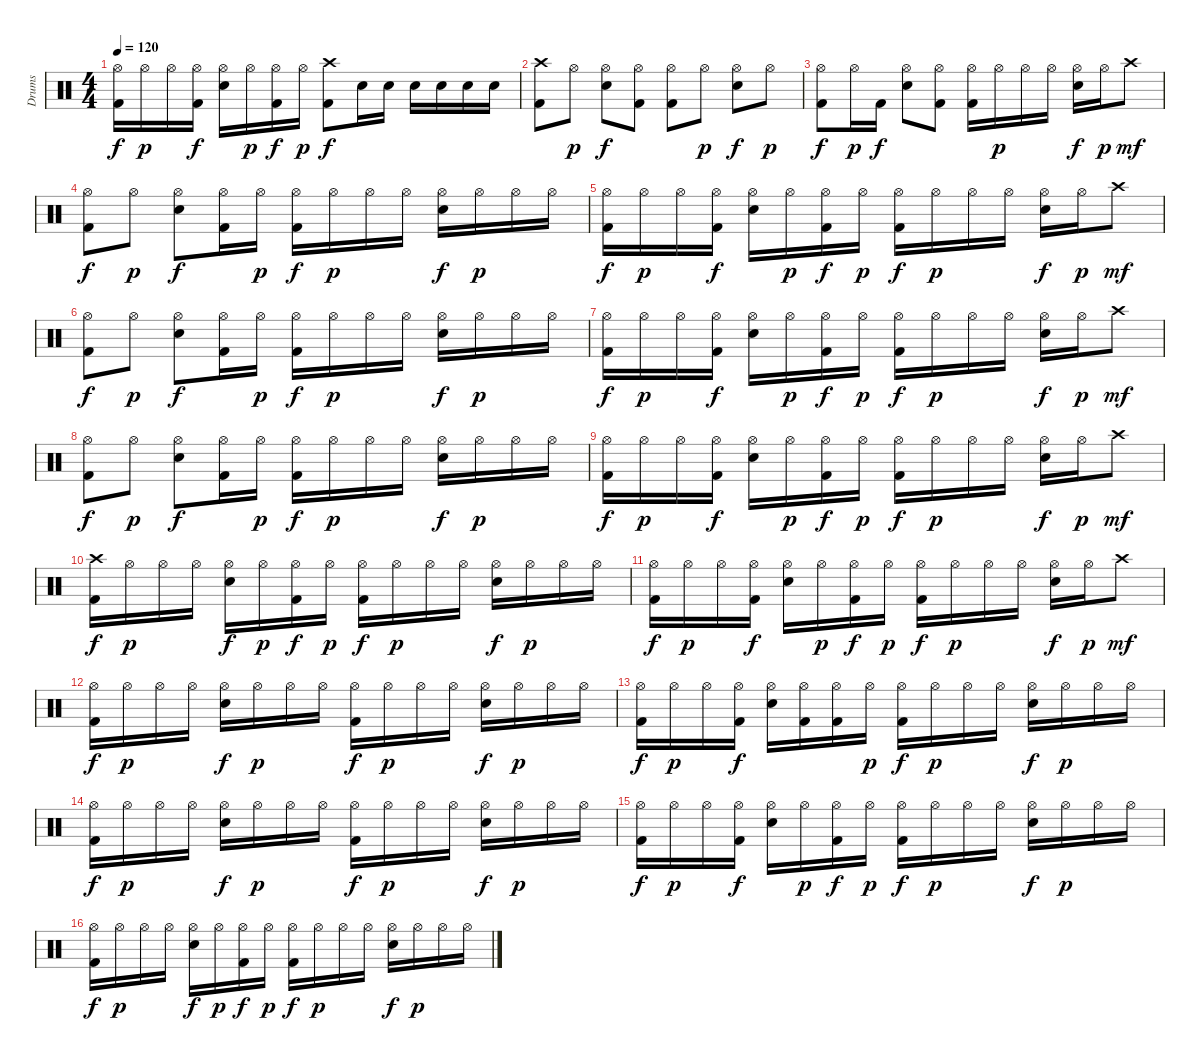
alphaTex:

\track ("Drums" "Drums") {instrument percussion}
\staff {score}
\articulation defaults
\ts (4 4)
\tempo 120
\clef neutral
\ks c
("Hi-Hat (open)" "Kick (hit) 2").16{dy f} "Hi-Hat (open)".16{dy p} "Hi-Hat (open)".16 ("Hi-Hat (open)" "Kick (hit) 2").16{dy f} ("Hi-Hat (open)" "Electric Snare (hit)").16 "Hi-Hat (open)".16{dy p} ("Hi-Hat (open)" "Kick (hit) 2").16{dy f} "Hi-Hat (open)".16{dy p} ("Crash high (hit)" "Kick (hit) 2").8{dy f} "Electric Snare (hit)".16 "Electric Snare (hit)".16 "Electric Snare (hit)".16 "Electric Snare (hit)".16 "Electric Snare (hit)".16 "Electric Snare (hit)".16 |
("Crash high (hit)" "Kick (hit) 2").8 "Hi-Hat (open)".8{dy p} ("Hi-Hat (open)" "Electric Snare (hit)").8{dy f} ("Hi-Hat (open)" "Kick (hit) 2").8 ("Hi-Hat (open)" "Kick (hit) 2").8 "Hi-Hat (open)".8{dy p} ("Hi-Hat (open)" "Electric Snare (hit)").8{dy f} "Hi-Hat (open)".8{dy p} |
("Hi-Hat (open)" "Kick (hit) 2").8{dy f} "Hi-Hat (open)".16{dy p} "Kick (hit) 2".16{dy f} ("Hi-Hat (open)" "Electric Snare (hit)").8 ("Hi-Hat (open)" "Kick (hit) 2").8 ("Hi-Hat (open)" "Kick (hit) 2").16 "Hi-Hat (open)".16{dy p} "Hi-Hat (open)".16 "Hi-Hat (open)".16 ("Hi-Hat (open)" "Electric Snare (hit)").16{dy f} "Hi-Hat (open)".16{dy p} "Crash high (hit)".8{dy mf} |
("Hi-Hat (open)" "Kick (hit) 2").8{dy f} "Hi-Hat (open)".8{dy p} ("Hi-Hat (open)" "Electric Snare (hit)").8{dy f} ("Hi-Hat (open)" "Kick (hit) 2").16 "Hi-Hat (open)".16{dy p} ("Hi-Hat (open)" "Kick (hit) 2").16{dy f} "Hi-Hat (open)".16{dy p} "Hi-Hat (open)".16 "Hi-Hat (open)".16 ("Hi-Hat (open)" "Electric Snare (hit)").16{dy f} "Hi-Hat (open)".16{dy p} "Hi-Hat (open)".16 "Hi-Hat (open)".16 |
("Hi-Hat (open)" "Kick (hit) 2").16{dy f} "Hi-Hat (open)".16{dy p} "Hi-Hat (open)".16 ("Hi-Hat (open)" "Kick (hit) 2").16{dy f} ("Hi-Hat (open)" "Electric Snare (hit)").16 "Hi-Hat (open)".16{dy p} ("Hi-Hat (open)" "Kick (hit) 2").16{dy f} "Hi-Hat (open)".16{dy p} ("Hi-Hat (open)" "Kick (hit) 2").16{dy f} "Hi-Hat (open)".16{dy p} "Hi-Hat (open)".16 "Hi-Hat (open)".16 ("Hi-Hat (open)" "Electric Snare (hit)").16{dy f} "Hi-Hat (open)".16{dy p} "Crash high (hit)".8{dy mf} |
("Hi-Hat (open)" "Kick (hit) 2").8{dy f} "Hi-Hat (open)".8{dy p} ("Hi-Hat (open)" "Electric Snare (hit)").8{dy f} ("Hi-Hat (open)" "Kick (hit) 2").16 "Hi-Hat (open)".16{dy p} ("Hi-Hat (open)" "Kick (hit) 2").16{dy f} "Hi-Hat (open)".16{dy p} "Hi-Hat (open)".16 "Hi-Hat (open)".16 ("Hi-Hat (open)" "Electric Snare (hit)").16{dy f} "Hi-Hat (open)".16{dy p} "Hi-Hat (open)".16 "Hi-Hat (open)".16 |
("Hi-Hat (open)" "Kick (hit) 2").16{dy f} "Hi-Hat (open)".16{dy p} "Hi-Hat (open)".16 ("Hi-Hat (open)" "Kick (hit) 2").16{dy f} ("Hi-Hat (open)" "Electric Snare (hit)").16 "Hi-Hat (open)".16{dy p} ("Hi-Hat (open)" "Kick (hit) 2").16{dy f} "Hi-Hat (open)".16{dy p} ("Hi-Hat (open)" "Kick (hit) 2").16{dy f} "Hi-Hat (open)".16{dy p} "Hi-Hat (open)".16 "Hi-Hat (open)".16 ("Hi-Hat (open)" "Electric Snare (hit)").16{dy f} "Hi-Hat (open)".16{dy p} "Crash high (hit)".8{dy mf} |
("Hi-Hat (open)" "Kick (hit) 2").8{dy f} "Hi-Hat (open)".8{dy p} ("Hi-Hat (open)" "Electric Snare (hit)").8{dy f} ("Hi-Hat (open)" "Kick (hit) 2").16 "Hi-Hat (open)".16{dy p} ("Hi-Hat (open)" "Kick (hit) 2").16{dy f} "Hi-Hat (open)".16{dy p} "Hi-Hat (open)".16 "Hi-Hat (open)".16 ("Hi-Hat (open)" "Electric Snare (hit)").16{dy f} "Hi-Hat (open)".16{dy p} "Hi-Hat (open)".16 "Hi-Hat (open)".16 |
("Hi-Hat (open)" "Kick (hit) 2").16{dy f} "Hi-Hat (open)".16{dy p} "Hi-Hat (open)".16 ("Hi-Hat (open)" "Kick (hit) 2").16{dy f} ("Hi-Hat (open)" "Electric Snare (hit)").16 "Hi-Hat (open)".16{dy p} ("Hi-Hat (open)" "Kick (hit) 2").16{dy f} "Hi-Hat (open)".16{dy p} ("Hi-Hat (open)" "Kick (hit) 2").16{dy f} "Hi-Hat (open)".16{dy p} "Hi-Hat (open)".16 "Hi-Hat (open)".16 ("Hi-Hat (open)" "Electric Snare (hit)").16{dy f} "Hi-Hat (open)".16{dy p} "Crash high (hit)".8{dy mf} |
("Crash high (hit)" "Kick (hit) 2").16{dy f} "Hi-Hat (open)".16{dy p} "Hi-Hat (open)".16 "Hi-Hat (open)".16 ("Hi-Hat (open)" "Electric Snare (hit)").16{dy f} "Hi-Hat (open)".16{dy p} ("Hi-Hat (open)" "Kick (hit) 2").16{dy f} "Hi-Hat (open)".16{dy p} ("Hi-Hat (open)" "Kick (hit) 2").16{dy f} "Hi-Hat (open)".16{dy p} "Hi-Hat (open)".16 "Hi-Hat (open)".16 ("Hi-Hat (open)" "Electric Snare (hit)").16{dy f} "Hi-Hat (open)".16{dy p} "Hi-Hat (open)".16 "Hi-Hat (open)".16 |
("Hi-Hat (open)" "Kick (hit) 2").16{dy f} "Hi-Hat (open)".16{dy p} "Hi-Hat (open)".16 ("Hi-Hat (open)" "Kick (hit) 2").16{dy f} ("Hi-Hat (open)" "Electric Snare (hit)").16 "Hi-Hat (open)".16{dy p} ("Hi-Hat (open)" "Kick (hit) 2").16{dy f} "Hi-Hat (open)".16{dy p} ("Hi-Hat (open)" "Kick (hit) 2").16{dy f} "Hi-Hat (open)".16{dy p} "Hi-Hat (open)".16 "Hi-Hat (open)".16 ("Hi-Hat (open)" "Electric Snare (hit)").16{dy f} "Hi-Hat (open)".16{dy p} "Crash high (hit)".8{dy mf} |
("Hi-Hat (open)" "Kick (hit) 2").16{dy f} "Hi-Hat (open)".16{dy p} "Hi-Hat (open)".16 "Hi-Hat (open)".16 ("Hi-Hat (open)" "Electric Snare (hit)").16{dy f} "Hi-Hat (open)".16{dy p} "Hi-Hat (open)".16 "Hi-Hat (open)".16 ("Hi-Hat (open)" "Kick (hit) 2").16{dy f} "Hi-Hat (open)".16{dy p} "Hi-Hat (open)".16 "Hi-Hat (open)".16 ("Hi-Hat (open)" "Electric Snare (hit)").16{dy f} "Hi-Hat (open)".16{dy p} "Hi-Hat (open)".16 "Hi-Hat (open)".16 |
("Hi-Hat (open)" "Kick (hit) 2").16{dy f} "Hi-Hat (open)".16{dy p} "Hi-Hat (open)".16 ("Hi-Hat (open)" "Kick (hit) 2").16{dy f} ("Hi-Hat (open)" "Electric Snare (hit)").16 ("Hi-Hat (open)" "Kick (hit) 2").16 ("Hi-Hat (open)" "Kick (hit) 2").16 "Hi-Hat (open)".16{dy p} ("Hi-Hat (open)" "Kick (hit) 2").16{dy f} "Hi-Hat (open)".16{dy p} "Hi-Hat (open)".16 "Hi-Hat (open)".16 ("Hi-Hat (open)" "Electric Snare (hit)").16{dy f} "Hi-Hat (open)".16{dy p} "Hi-Hat (open)".16 "Hi-Hat (open)".16 |
("Hi-Hat (open)" "Kick (hit) 2").16{dy f} "Hi-Hat (open)".16{dy p} "Hi-Hat (open)".16 "Hi-Hat (open)".16 ("Hi-Hat (open)" "Electric Snare (hit)").16{dy f} "Hi-Hat (open)".16{dy p} "Hi-Hat (open)".16 "Hi-Hat (open)".16 ("Hi-Hat (open)" "Kick (hit) 2").16{dy f} "Hi-Hat (open)".16{dy p} "Hi-Hat (open)".16 "Hi-Hat (open)".16 ("Hi-Hat (open)" "Electric Snare (hit)").16{dy f} "Hi-Hat (open)".16{dy p} "Hi-Hat (open)".16 "Hi-Hat (open)".16 |
("Hi-Hat (open)" "Kick (hit) 2").16{dy f} "Hi-Hat (open)".16{dy p} "Hi-Hat (open)".16 ("Hi-Hat (open)" "Kick (hit) 2").16{dy f} ("Hi-Hat (open)" "Electric Snare (hit)").16 "Hi-Hat (open)".16{dy p} ("Hi-Hat (open)" "Kick (hit) 2").16{dy f} "Hi-Hat (open)".16{dy p} ("Hi-Hat (open)" "Kick (hit) 2").16{dy f} "Hi-Hat (open)".16{dy p} "Hi-Hat (open)".16 "Hi-Hat (open)".16 ("Hi-Hat (open)" "Electric Snare (hit)").16{dy f} "Hi-Hat (open)".16{dy p} "Hi-Hat (open)".16 "Hi-Hat (open)".16 |
("Hi-Hat (open)" "Kick (hit) 2").16{dy f} "Hi-Hat (open)".16{dy p} "Hi-Hat (open)".16 "Hi-Hat (open)".16 ("Hi-Hat (open)" "Electric Snare (hit)").16{dy f} "Hi-Hat (open)".16{dy p} ("Hi-Hat (open)" "Kick (hit) 2").16{dy f} "Hi-Hat (open)".16{dy p} ("Hi-Hat (open)" "Kick (hit) 2").16{dy f} "Hi-Hat (open)".16{dy p} "Hi-Hat (open)".16 "Hi-Hat (open)".16 ("Hi-Hat (open)" "Electric Snare (hit)").16{dy f} "Hi-Hat (open)".16{dy p} "Hi-Hat (open)".16 "Hi-Hat (open)".16
